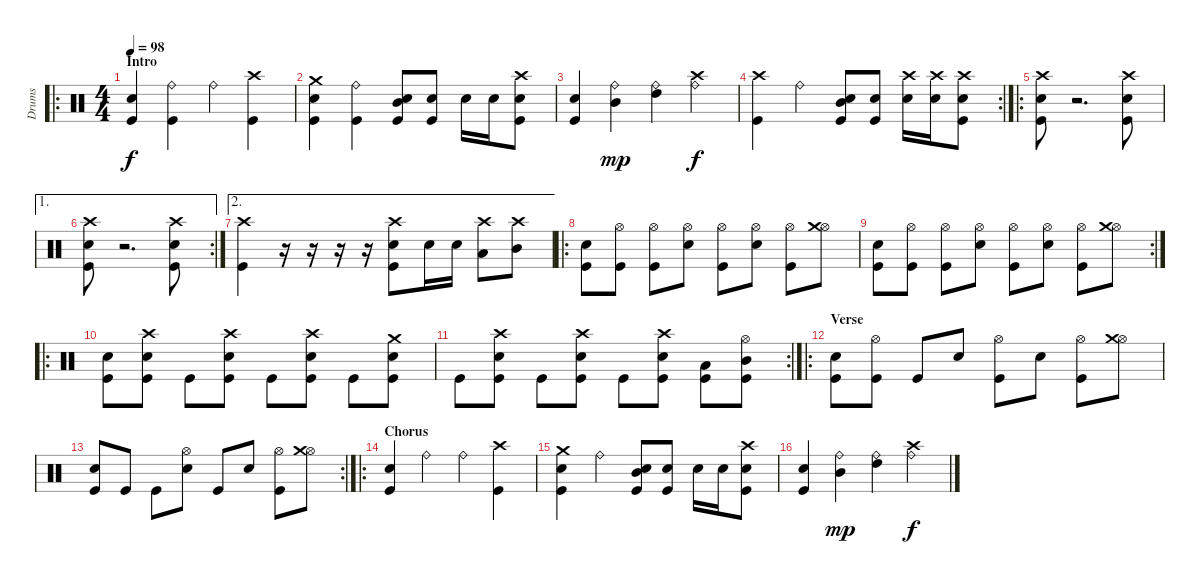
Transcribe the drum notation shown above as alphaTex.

\track ("Drums" "Drums") {instrument percussion}
\staff {score}
\articulation defaults
\ro
\ts (4 4)
\section ("" "Intro")
\tempo 98
\clef neutral
\ks c
("Electric Snare (hit)" "Kick (hit)").4{dy f} ("Kick (hit)" "Ride (bell)").4 "Ride (bell)".4 ("Kick (hit)" "Crash high (hit)").4 |
("Electric Snare (hit)" "Kick (hit)" "Crash medium (hit)").4 ("Kick (hit)" "Ride (bell)").4 ("Mid Tom (hit)" "Electric Snare (hit)" "Kick (hit)").8 ("Electric Snare (hit)" "Kick (hit)").8 "Electric Snare (hit)".16 "Electric Snare (hit)".16 ("Electric Snare (hit)" "Kick (hit)" "Crash high (hit)").8 |
("Kick (hit)" "Electric Snare (hit)").4 ("Mid Tom (hit)" "Ride (bell)").4{dy mp} ("High Tom (hit)" "Ride (bell)").4 ("Ride (bell)" "Crash high (hit)").4{dy f} |
\rc 2
("Kick (hit)" "Crash high (hit)").4 "Ride (bell)".4 ("Mid Tom (hit)" "Electric Snare (hit)" "Kick (hit)").8 ("Electric Snare (hit)" "Kick (hit)").8 ("Crash high (hit)" "Electric Snare (hit)").16 ("Crash high (hit)" "Electric Snare (hit)").16 ("Electric Snare (hit)" "Kick (hit)" "Crash high (hit)").8 |
\ro
("Kick (hit)" "Electric Snare (hit)" "Crash high (hit)").8 r.2{d} ("Kick (hit)" "Electric Snare (hit)" "Crash high (hit)").8 |
\ae 1
\rc 2
("Crash high (hit)" "Electric Snare (hit)" "Kick (hit)").8 r.2{d} ("Crash high (hit)" "Electric Snare (hit)" "Kick (hit)").8 |
\ae 2
("Kick (hit)" "Crash high (hit)").4 r.16 r.16 r.16 r.16 ("Crash high (hit)" "Electric Snare (hit)" "Kick (hit)").8 "Electric Snare (hit)".16 "Electric Snare (hit)".16 ("Low Tom (hit)" "Crash high (hit)").8 ("Mid Tom (hit)" "Crash high (hit)").8 |
\ro
("Electric Snare (hit)" "Kick (hit)").8 ("Hi-Hat (open)" "Kick (hit)").8 ("Hi-Hat (open)" "Kick (hit)").8 ("Hi-Hat (open)" "Electric Snare (hit)").8 ("Hi-Hat (open)" "Kick (hit)").8 ("Hi-Hat (open)" "Electric Snare (hit)").8 ("Hi-Hat (open)" "Kick (hit)").8 ("Hi-Hat (open)" "Crash medium (hit)").8 |
\rc 2
("Electric Snare (hit)" "Kick (hit)").8 ("Hi-Hat (open)" "Kick (hit)").8 ("Hi-Hat (open)" "Kick (hit)").8 ("Hi-Hat (open)" "Electric Snare (hit)").8 ("Hi-Hat (open)" "Kick (hit)").8 ("Hi-Hat (open)" "Electric Snare (hit)").8 ("Hi-Hat (open)" "Kick (hit)").8 ("Hi-Hat (open)" "Crash medium (hit)").8 |
\ro
("Electric Snare (hit)" "Kick (hit)").8 ("Crash high (hit)" "Electric Snare (hit)" "Kick (hit)").8 "Kick (hit)".8 ("Crash high (hit)" "Electric Snare (hit)" "Kick (hit)").8 "Kick (hit)".8 ("Crash high (hit)" "Electric Snare (hit)" "Kick (hit)").8 "Kick (hit)".8 ("Crash medium (hit)" "Electric Snare (hit)" "Kick (hit)").8 |
\rc 2 "Kick (hit)".8
("Crash high (hit)" "Electric Snare (hit)" "Kick (hit)").8 "Kick (hit)".8 ("Crash high (hit)" "Electric Snare (hit)" "Kick (hit)").8 "Kick (hit)".8 ("Crash high (hit)" "Electric Snare (hit)" "Kick (hit)").8 ("Low Tom (hit)" "Kick (hit)").8 ("Hi-Hat (open)" "Mid Tom (hit)" "Kick (hit)").8 |
\ro
\section ("" "Verse")
("Electric Snare (hit)" "Kick (hit)").8 ("Hi-Hat (open)" "Kick (hit)").8 "Kick (hit)".8 "Electric Snare (hit)".8 ("Hi-Hat (open)" "Kick (hit)").8 "Electric Snare (hit)".8 ("Hi-Hat (open)" "Kick (hit)").8 ("Hi-Hat (open)" "Crash medium (hit)").8 |
\rc 2
("Electric Snare (hit)" "Kick (hit)").8 "Kick (hit)".8 "Kick (hit)".8 ("Hi-Hat (open)" "Electric Snare (hit)").8 "Kick (hit)".8 "Electric Snare (hit)".8 ("Hi-Hat (open)" "Kick (hit)").8 ("Hi-Hat (open)" "Crash medium (hit)").8 |
\ro
\section ("" "Chorus")
("Electric Snare (hit)" "Kick (hit)").4 "Ride (bell)".4 "Ride (bell)".4 ("Kick (hit)" "Crash high (hit)").4 |
("Electric Snare (hit)" "Kick (hit)" "Crash medium (hit)").4 "Ride (bell)".4 ("Mid Tom (hit)" "Electric Snare (hit)" "Kick (hit)").8 ("Electric Snare (hit)" "Kick (hit)").8 "Electric Snare (hit)".16 "Electric Snare (hit)".16 ("Electric Snare (hit)" "Kick (hit)" "Crash high (hit)").8 |
("Kick (hit)" "Electric Snare (hit)").4 ("Mid Tom (hit)" "Ride (bell)").4{dy mp} ("High Tom (hit)" "Ride (bell)").4 ("Ride (bell)" "Crash high (hit)").4{dy f}
